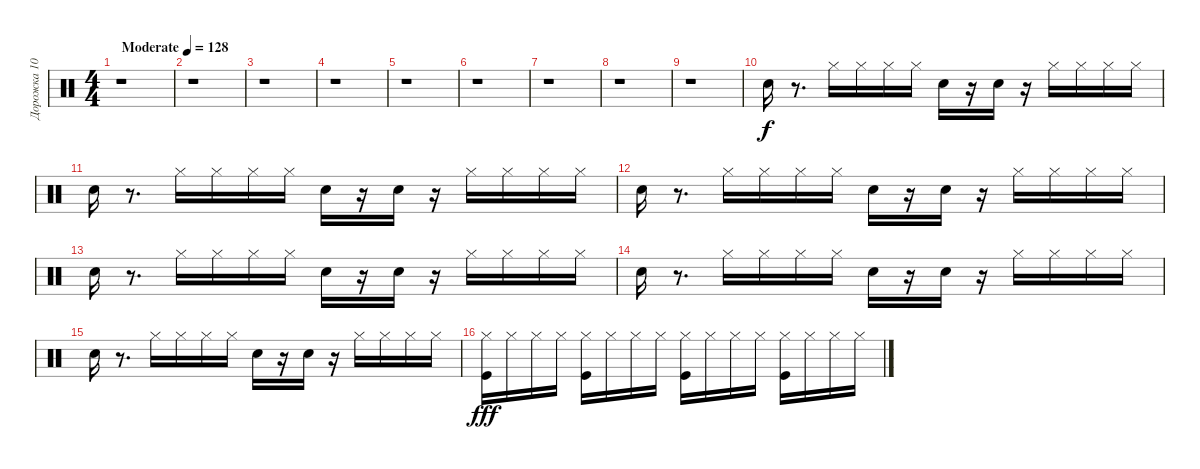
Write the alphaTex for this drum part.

\track ("Дорожка 10" "Дорожка 10") {instrument percussion}
\staff {score}
\articulation defaults
\ts (4 4)
\tempo (128 "Moderate")
\clef neutral
\ks c
r.1{dy f} |
r.1 |
r.1 |
r.1 |
r.1 |
r.1 |
r.1 |
r.1 |
r.1 |
"Snare (hit) 2".16 r.8{d} "Hi-Hat (closed)".16 "Hi-Hat (closed)".16 "Hi-Hat (closed)".16 "Hi-Hat (closed)".16 "Snare (hit) 2".16 r.16 "Snare (hit) 2".16 r.16 "Hi-Hat (closed)".16 "Hi-Hat (closed)".16 "Hi-Hat (closed)".16 "Hi-Hat (closed)".16 |
"Snare (hit) 2".16 r.8{d} "Hi-Hat (closed)".16 "Hi-Hat (closed)".16 "Hi-Hat (closed)".16 "Hi-Hat (closed)".16 "Snare (hit) 2".16 r.16 "Snare (hit) 2".16 r.16 "Hi-Hat (closed)".16 "Hi-Hat (closed)".16 "Hi-Hat (closed)".16 "Hi-Hat (closed)".16 |
"Snare (hit) 2".16 r.8{d} "Hi-Hat (closed)".16 "Hi-Hat (closed)".16 "Hi-Hat (closed)".16 "Hi-Hat (closed)".16 "Snare (hit) 2".16 r.16 "Snare (hit) 2".16 r.16 "Hi-Hat (closed)".16 "Hi-Hat (closed)".16 "Hi-Hat (closed)".16 "Hi-Hat (closed)".16 |
"Snare (hit) 2".16 r.8{d} "Hi-Hat (closed)".16 "Hi-Hat (closed)".16 "Hi-Hat (closed)".16 "Hi-Hat (closed)".16 "Snare (hit) 2".16 r.16 "Snare (hit) 2".16 r.16 "Hi-Hat (closed)".16 "Hi-Hat (closed)".16 "Hi-Hat (closed)".16 "Hi-Hat (closed)".16 |
"Snare (hit) 2".16 r.8{d} "Hi-Hat (closed)".16 "Hi-Hat (closed)".16 "Hi-Hat (closed)".16 "Hi-Hat (closed)".16 "Snare (hit) 2".16 r.16 "Snare (hit) 2".16 r.16 "Hi-Hat (closed)".16 "Hi-Hat (closed)".16 "Hi-Hat (closed)".16 "Hi-Hat (closed)".16 |
"Snare (hit) 2".16 r.8{d} "Hi-Hat (closed)".16 "Hi-Hat (closed)".16 "Hi-Hat (closed)".16 "Hi-Hat (closed)".16 "Snare (hit) 2".16 r.16 "Snare (hit) 2".16 r.16 "Hi-Hat (closed)".16 "Hi-Hat (closed)".16 "Hi-Hat (closed)".16 "Hi-Hat (closed)".16 |
("Hi-Hat (closed)" "Kick (hit)").16{dy fff} "Hi-Hat (closed)".16 "Hi-Hat (closed)".16 "Hi-Hat (closed)".16 ("Hi-Hat (closed)" "Kick (hit)").16 "Hi-Hat (closed)".16 "Hi-Hat (closed)".16 "Hi-Hat (closed)".16 ("Kick (hit)" "Hi-Hat (closed)").16 "Hi-Hat (closed)".16 "Hi-Hat (closed)".16 "Hi-Hat (closed)".16 ("Kick (hit)" "Hi-Hat (closed)").16 "Hi-Hat (closed)".16 "Hi-Hat (closed)".16 "Hi-Hat (closed)".16
